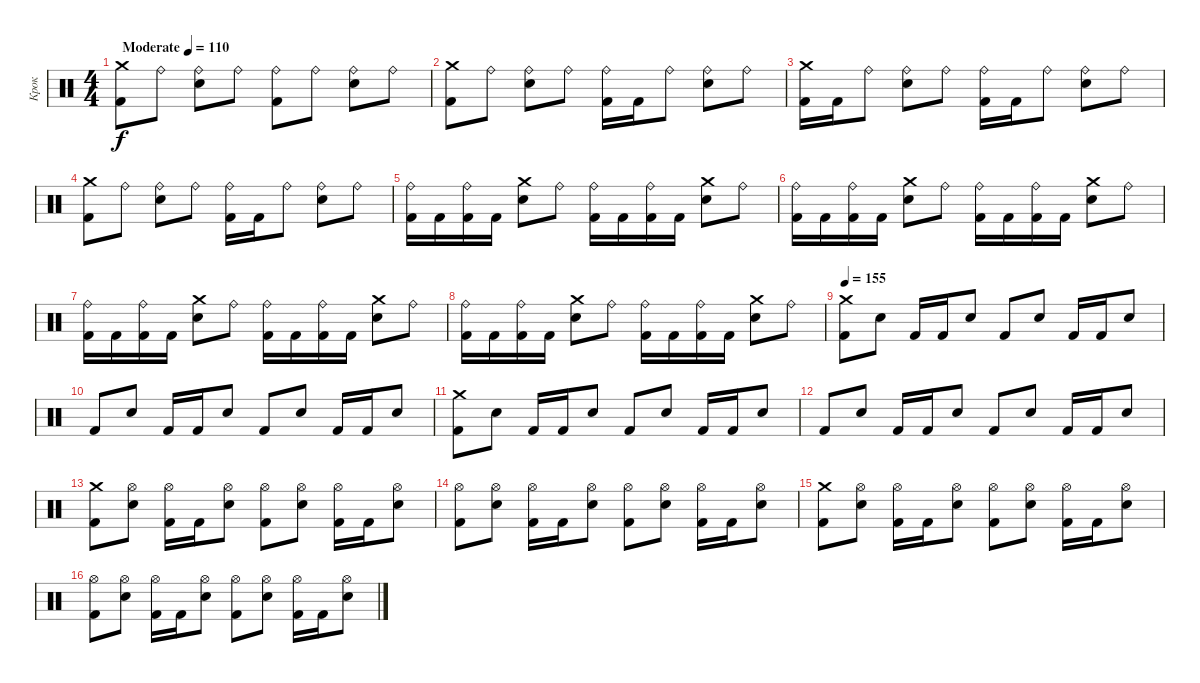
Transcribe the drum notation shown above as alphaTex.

\track ("Крок" "Крок") {instrument percussion}
\staff {score}
\articulation defaults
\ts (4 4)
\tempo (110 "Moderate")
\clef neutral
\ks c
("Crash medium (hit)" "Kick (hit) 2").8{dy f} "Ride (bell)".8 ("Ride (bell)" "Electric Snare (hit)").8 "Ride (bell)".8 ("Ride (bell)" "Kick (hit) 2").8 "Ride (bell)".8 ("Ride (bell)" "Electric Snare (hit)").8 "Ride (bell)".8 |
("Crash medium (hit)" "Kick (hit) 2").8 "Ride (bell)".8 ("Ride (bell)" "Electric Snare (hit)").8 "Ride (bell)".8 ("Ride (bell)" "Kick (hit) 2").16 "Kick (hit) 2".16 "Ride (bell)".8 ("Ride (bell)" "Electric Snare (hit)").8 "Ride (bell)".8 |
("Crash medium (hit)" "Kick (hit) 2").16 "Kick (hit) 2".16 "Ride (bell)".8 ("Ride (bell)" "Electric Snare (hit)").8 "Ride (bell)".8 ("Ride (bell)" "Kick (hit) 2").16 "Kick (hit) 2".16 "Ride (bell)".8 ("Ride (bell)" "Electric Snare (hit)").8 "Ride (bell)".8 |
("Crash medium (hit)" "Kick (hit) 2").8 "Ride (bell)".8 ("Ride (bell)" "Electric Snare (hit)").8 "Ride (bell)".8 ("Ride (bell)" "Kick (hit) 2").16 "Kick (hit) 2".16 "Ride (bell)".8 ("Ride (bell)" "Electric Snare (hit)").8 "Ride (bell)".8 |
("Ride (bell)" "Kick (hit) 2").16 "Kick (hit) 2".16 ("Ride (bell)" "Kick (hit) 2").16 "Kick (hit) 2".16 ("Crash medium (hit)" "Electric Snare (hit)").8 "Ride (bell)".8 ("Ride (bell)" "Kick (hit) 2").16 "Kick (hit) 2".16 ("Ride (bell)" "Kick (hit) 2").16 "Kick (hit) 2".16 ("Crash medium (hit)" "Electric Snare (hit)").8 "Ride (bell)".8 |
("Ride (bell)" "Kick (hit) 2").16 "Kick (hit) 2".16 ("Ride (bell)" "Kick (hit) 2").16 "Kick (hit) 2".16 ("Crash medium (hit)" "Electric Snare (hit)").8 "Ride (bell)".8 ("Ride (bell)" "Kick (hit) 2").16 "Kick (hit) 2".16 ("Ride (bell)" "Kick (hit) 2").16 "Kick (hit) 2".16 ("Crash medium (hit)" "Electric Snare (hit)").8 "Ride (bell)".8 |
("Ride (bell)" "Kick (hit) 2").16 "Kick (hit) 2".16 ("Ride (bell)" "Kick (hit) 2").16 "Kick (hit) 2".16 ("Crash medium (hit)" "Electric Snare (hit)").8 "Ride (bell)".8 ("Ride (bell)" "Kick (hit) 2").16 "Kick (hit) 2".16 ("Ride (bell)" "Kick (hit) 2").16 "Kick (hit) 2".16 ("Crash medium (hit)" "Electric Snare (hit)").8 "Ride (bell)".8 |
("Ride (bell)" "Kick (hit) 2").16 "Kick (hit) 2".16 ("Ride (bell)" "Kick (hit) 2").16 "Kick (hit) 2".16 ("Crash medium (hit)" "Electric Snare (hit)").8 "Ride (bell)".8 ("Ride (bell)" "Kick (hit) 2").16 "Kick (hit) 2".16 ("Ride (bell)" "Kick (hit) 2").16 "Kick (hit) 2".16 ("Crash medium (hit)" "Electric Snare (hit)").8 "Ride (bell)".8 |
\tempo 155
("Crash medium (hit)" "Kick (hit) 2").8 "Electric Snare (hit)".8 "Kick (hit) 2".16 "Kick (hit) 2".16 "Electric Snare (hit)".8 "Kick (hit) 2".8 "Electric Snare (hit)".8 "Kick (hit) 2".16 "Kick (hit) 2".16 "Electric Snare (hit)".8 |
"Kick (hit) 2".8 "Electric Snare (hit)".8 "Kick (hit) 2".16 "Kick (hit) 2".16 "Electric Snare (hit)".8 "Kick (hit) 2".8 "Electric Snare (hit)".8 "Kick (hit) 2".16 "Kick (hit) 2".16 "Electric Snare (hit)".8 |
("Crash medium (hit)" "Kick (hit) 2").8 "Electric Snare (hit)".8 "Kick (hit) 2".16 "Kick (hit) 2".16 "Electric Snare (hit)".8 "Kick (hit) 2".8 "Electric Snare (hit)".8 "Kick (hit) 2".16 "Kick (hit) 2".16 "Electric Snare (hit)".8 |
"Kick (hit) 2".8 "Electric Snare (hit)".8 "Kick (hit) 2".16 "Kick (hit) 2".16 "Electric Snare (hit)".8 "Kick (hit) 2".8 "Electric Snare (hit)".8 "Kick (hit) 2".16 "Kick (hit) 2".16 "Electric Snare (hit)".8 |
("Crash medium (hit)" "Kick (hit) 2").8 ("Hi-Hat (open)" "Electric Snare (hit)").8 ("Hi-Hat (open)" "Kick (hit) 2").16 "Kick (hit) 2".16 ("Hi-Hat (open)" "Electric Snare (hit)").8 ("Hi-Hat (open)" "Kick (hit) 2").8 ("Hi-Hat (open)" "Electric Snare (hit)").8 ("Hi-Hat (open)" "Kick (hit) 2").16 "Kick (hit) 2".16 ("Hi-Hat (open)" "Electric Snare (hit)").8 |
("Hi-Hat (open)" "Kick (hit) 2").8 ("Hi-Hat (open)" "Electric Snare (hit)").8 ("Hi-Hat (open)" "Kick (hit) 2").16 "Kick (hit) 2".16 ("Hi-Hat (open)" "Electric Snare (hit)").8 ("Hi-Hat (open)" "Kick (hit) 2").8 ("Hi-Hat (open)" "Electric Snare (hit)").8 ("Hi-Hat (open)" "Kick (hit) 2").16 "Kick (hit) 2".16 ("Hi-Hat (open)" "Electric Snare (hit)").8 |
("Crash medium (hit)" "Kick (hit) 2").8 ("Hi-Hat (open)" "Electric Snare (hit)").8 ("Hi-Hat (open)" "Kick (hit) 2").16 "Kick (hit) 2".16 ("Hi-Hat (open)" "Electric Snare (hit)").8 ("Hi-Hat (open)" "Kick (hit) 2").8 ("Hi-Hat (open)" "Electric Snare (hit)").8 ("Hi-Hat (open)" "Kick (hit) 2").16 "Kick (hit) 2".16 ("Hi-Hat (open)" "Electric Snare (hit)").8 |
("Hi-Hat (open)" "Kick (hit) 2").8 ("Hi-Hat (open)" "Electric Snare (hit)").8 ("Hi-Hat (open)" "Kick (hit) 2").16 "Kick (hit) 2".16 ("Hi-Hat (open)" "Electric Snare (hit)").8 ("Hi-Hat (open)" "Kick (hit) 2").8 ("Hi-Hat (open)" "Electric Snare (hit)").8 ("Hi-Hat (open)" "Kick (hit) 2").16 "Kick (hit) 2".16 ("Hi-Hat (open)" "Electric Snare (hit)").8
